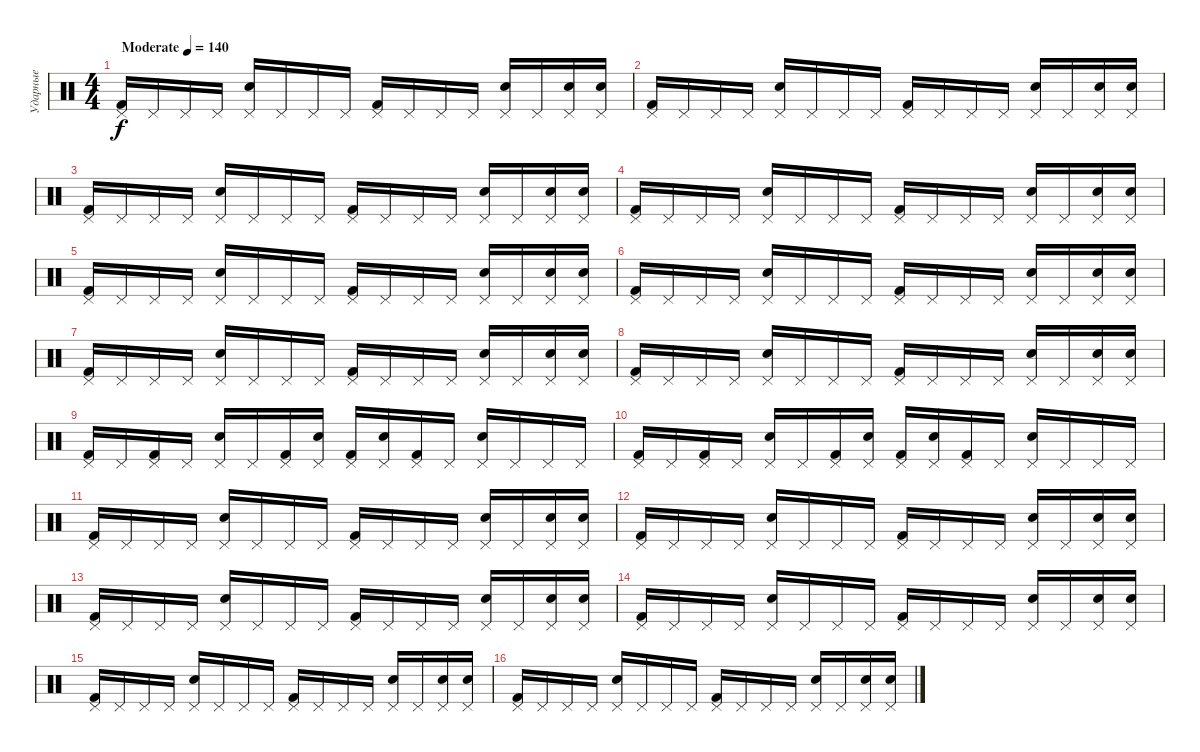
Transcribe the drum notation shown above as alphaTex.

\track ("Ударные" "Ударные") {instrument percussion}
\staff {score}
\articulation defaults
\ts (4 4)
\tempo (140 "Moderate")
\clef neutral
\ks c
("Pedal Hi-Hat (hit)" "Kick (hit) 2").16{dy f} "Pedal Hi-Hat (hit)".16 "Pedal Hi-Hat (hit)".16 "Pedal Hi-Hat (hit)".16 ("Pedal Hi-Hat (hit)" "Electric Snare (hit)").16 "Pedal Hi-Hat (hit)".16 "Pedal Hi-Hat (hit)".16 "Pedal Hi-Hat (hit)".16 ("Pedal Hi-Hat (hit)" "Kick (hit) 2").16 "Pedal Hi-Hat (hit)".16 "Pedal Hi-Hat (hit)".16 "Pedal Hi-Hat (hit)".16 ("Pedal Hi-Hat (hit)" "Electric Snare (hit)").16 "Pedal Hi-Hat (hit)".16 ("Pedal Hi-Hat (hit)" "Electric Snare (hit)").16 ("Pedal Hi-Hat (hit)" "Electric Snare (hit)").16 |
("Pedal Hi-Hat (hit)" "Kick (hit) 2").16 "Pedal Hi-Hat (hit)".16 "Pedal Hi-Hat (hit)".16 "Pedal Hi-Hat (hit)".16 ("Pedal Hi-Hat (hit)" "Electric Snare (hit)").16 "Pedal Hi-Hat (hit)".16 "Pedal Hi-Hat (hit)".16 "Pedal Hi-Hat (hit)".16 ("Pedal Hi-Hat (hit)" "Kick (hit) 2").16 "Pedal Hi-Hat (hit)".16 "Pedal Hi-Hat (hit)".16 "Pedal Hi-Hat (hit)".16 ("Pedal Hi-Hat (hit)" "Electric Snare (hit)").16 "Pedal Hi-Hat (hit)".16 ("Pedal Hi-Hat (hit)" "Electric Snare (hit)").16 ("Pedal Hi-Hat (hit)" "Electric Snare (hit)").16 |
("Pedal Hi-Hat (hit)" "Kick (hit) 2").16 "Pedal Hi-Hat (hit)".16 "Pedal Hi-Hat (hit)".16 "Pedal Hi-Hat (hit)".16 ("Pedal Hi-Hat (hit)" "Electric Snare (hit)").16 "Pedal Hi-Hat (hit)".16 "Pedal Hi-Hat (hit)".16 "Pedal Hi-Hat (hit)".16 ("Pedal Hi-Hat (hit)" "Kick (hit) 2").16 "Pedal Hi-Hat (hit)".16 "Pedal Hi-Hat (hit)".16 "Pedal Hi-Hat (hit)".16 ("Pedal Hi-Hat (hit)" "Electric Snare (hit)").16 "Pedal Hi-Hat (hit)".16 ("Pedal Hi-Hat (hit)" "Electric Snare (hit)").16 ("Pedal Hi-Hat (hit)" "Electric Snare (hit)").16 |
("Pedal Hi-Hat (hit)" "Kick (hit) 2").16 "Pedal Hi-Hat (hit)".16 "Pedal Hi-Hat (hit)".16 "Pedal Hi-Hat (hit)".16 ("Pedal Hi-Hat (hit)" "Electric Snare (hit)").16 "Pedal Hi-Hat (hit)".16 "Pedal Hi-Hat (hit)".16 "Pedal Hi-Hat (hit)".16 ("Pedal Hi-Hat (hit)" "Kick (hit) 2").16 "Pedal Hi-Hat (hit)".16 "Pedal Hi-Hat (hit)".16 "Pedal Hi-Hat (hit)".16 ("Pedal Hi-Hat (hit)" "Electric Snare (hit)").16 "Pedal Hi-Hat (hit)".16 ("Pedal Hi-Hat (hit)" "Electric Snare (hit)").16 ("Pedal Hi-Hat (hit)" "Electric Snare (hit)").16 |
("Pedal Hi-Hat (hit)" "Kick (hit) 2").16 "Pedal Hi-Hat (hit)".16 "Pedal Hi-Hat (hit)".16 "Pedal Hi-Hat (hit)".16 ("Pedal Hi-Hat (hit)" "Electric Snare (hit)").16 "Pedal Hi-Hat (hit)".16 "Pedal Hi-Hat (hit)".16 "Pedal Hi-Hat (hit)".16 ("Pedal Hi-Hat (hit)" "Kick (hit) 2").16 "Pedal Hi-Hat (hit)".16 "Pedal Hi-Hat (hit)".16 "Pedal Hi-Hat (hit)".16 ("Pedal Hi-Hat (hit)" "Electric Snare (hit)").16 "Pedal Hi-Hat (hit)".16 ("Pedal Hi-Hat (hit)" "Electric Snare (hit)").16 ("Pedal Hi-Hat (hit)" "Electric Snare (hit)").16 |
("Pedal Hi-Hat (hit)" "Kick (hit) 2").16 "Pedal Hi-Hat (hit)".16 "Pedal Hi-Hat (hit)".16 "Pedal Hi-Hat (hit)".16 ("Pedal Hi-Hat (hit)" "Electric Snare (hit)").16 "Pedal Hi-Hat (hit)".16 "Pedal Hi-Hat (hit)".16 "Pedal Hi-Hat (hit)".16 ("Pedal Hi-Hat (hit)" "Kick (hit) 2").16 "Pedal Hi-Hat (hit)".16 "Pedal Hi-Hat (hit)".16 "Pedal Hi-Hat (hit)".16 ("Pedal Hi-Hat (hit)" "Electric Snare (hit)").16 "Pedal Hi-Hat (hit)".16 ("Pedal Hi-Hat (hit)" "Electric Snare (hit)").16 ("Pedal Hi-Hat (hit)" "Electric Snare (hit)").16 |
("Pedal Hi-Hat (hit)" "Kick (hit) 2").16 "Pedal Hi-Hat (hit)".16 "Pedal Hi-Hat (hit)".16 "Pedal Hi-Hat (hit)".16 ("Pedal Hi-Hat (hit)" "Electric Snare (hit)").16 "Pedal Hi-Hat (hit)".16 "Pedal Hi-Hat (hit)".16 "Pedal Hi-Hat (hit)".16 ("Pedal Hi-Hat (hit)" "Kick (hit) 2").16 "Pedal Hi-Hat (hit)".16 "Pedal Hi-Hat (hit)".16 "Pedal Hi-Hat (hit)".16 ("Pedal Hi-Hat (hit)" "Electric Snare (hit)").16 "Pedal Hi-Hat (hit)".16 ("Pedal Hi-Hat (hit)" "Electric Snare (hit)").16 ("Pedal Hi-Hat (hit)" "Electric Snare (hit)").16 |
("Pedal Hi-Hat (hit)" "Kick (hit) 2").16 "Pedal Hi-Hat (hit)".16 "Pedal Hi-Hat (hit)".16 "Pedal Hi-Hat (hit)".16 ("Pedal Hi-Hat (hit)" "Electric Snare (hit)").16 "Pedal Hi-Hat (hit)".16 "Pedal Hi-Hat (hit)".16 "Pedal Hi-Hat (hit)".16 ("Pedal Hi-Hat (hit)" "Kick (hit) 2").16 "Pedal Hi-Hat (hit)".16 "Pedal Hi-Hat (hit)".16 "Pedal Hi-Hat (hit)".16 ("Pedal Hi-Hat (hit)" "Electric Snare (hit)").16 "Pedal Hi-Hat (hit)".16 ("Pedal Hi-Hat (hit)" "Electric Snare (hit)").16 ("Pedal Hi-Hat (hit)" "Electric Snare (hit)").16 |
("Pedal Hi-Hat (hit)" "Kick (hit) 2").16 "Pedal Hi-Hat (hit)".16 ("Pedal Hi-Hat (hit)" "Kick (hit) 2").16 "Pedal Hi-Hat (hit)".16 ("Pedal Hi-Hat (hit)" "Electric Snare (hit)").16 "Pedal Hi-Hat (hit)".16 ("Pedal Hi-Hat (hit)" "Kick (hit) 2").16 ("Pedal Hi-Hat (hit)" "Electric Snare (hit)").16 ("Pedal Hi-Hat (hit)" "Kick (hit) 2").16 ("Pedal Hi-Hat (hit)" "Electric Snare (hit)").16 ("Pedal Hi-Hat (hit)" "Kick (hit) 2").16 "Pedal Hi-Hat (hit)".16 ("Pedal Hi-Hat (hit)" "Electric Snare (hit)").16 "Pedal Hi-Hat (hit)".16 "Pedal Hi-Hat (hit)".16 "Pedal Hi-Hat (hit)".16 |
("Pedal Hi-Hat (hit)" "Kick (hit) 2").16 "Pedal Hi-Hat (hit)".16 ("Pedal Hi-Hat (hit)" "Kick (hit) 2").16 "Pedal Hi-Hat (hit)".16 ("Pedal Hi-Hat (hit)" "Electric Snare (hit)").16 "Pedal Hi-Hat (hit)".16 ("Pedal Hi-Hat (hit)" "Kick (hit) 2").16 ("Pedal Hi-Hat (hit)" "Electric Snare (hit)").16 ("Pedal Hi-Hat (hit)" "Kick (hit) 2").16 ("Pedal Hi-Hat (hit)" "Electric Snare (hit)").16 ("Pedal Hi-Hat (hit)" "Kick (hit) 2").16 "Pedal Hi-Hat (hit)".16 ("Pedal Hi-Hat (hit)" "Electric Snare (hit)").16 "Pedal Hi-Hat (hit)".16 "Pedal Hi-Hat (hit)".16 "Pedal Hi-Hat (hit)".16 |
("Pedal Hi-Hat (hit)" "Kick (hit) 2").16 "Pedal Hi-Hat (hit)".16 "Pedal Hi-Hat (hit)".16 "Pedal Hi-Hat (hit)".16 ("Pedal Hi-Hat (hit)" "Electric Snare (hit)").16 "Pedal Hi-Hat (hit)".16 "Pedal Hi-Hat (hit)".16 "Pedal Hi-Hat (hit)".16 ("Pedal Hi-Hat (hit)" "Kick (hit) 2").16 "Pedal Hi-Hat (hit)".16 "Pedal Hi-Hat (hit)".16 "Pedal Hi-Hat (hit)".16 ("Pedal Hi-Hat (hit)" "Electric Snare (hit)").16 "Pedal Hi-Hat (hit)".16 ("Pedal Hi-Hat (hit)" "Electric Snare (hit)").16 ("Pedal Hi-Hat (hit)" "Electric Snare (hit)").16 |
("Pedal Hi-Hat (hit)" "Kick (hit) 2").16 "Pedal Hi-Hat (hit)".16 "Pedal Hi-Hat (hit)".16 "Pedal Hi-Hat (hit)".16 ("Pedal Hi-Hat (hit)" "Electric Snare (hit)").16 "Pedal Hi-Hat (hit)".16 "Pedal Hi-Hat (hit)".16 "Pedal Hi-Hat (hit)".16 ("Pedal Hi-Hat (hit)" "Kick (hit) 2").16 "Pedal Hi-Hat (hit)".16 "Pedal Hi-Hat (hit)".16 "Pedal Hi-Hat (hit)".16 ("Pedal Hi-Hat (hit)" "Electric Snare (hit)").16 "Pedal Hi-Hat (hit)".16 ("Pedal Hi-Hat (hit)" "Electric Snare (hit)").16 ("Pedal Hi-Hat (hit)" "Electric Snare (hit)").16 |
("Pedal Hi-Hat (hit)" "Kick (hit) 2").16 "Pedal Hi-Hat (hit)".16 "Pedal Hi-Hat (hit)".16 "Pedal Hi-Hat (hit)".16 ("Pedal Hi-Hat (hit)" "Electric Snare (hit)").16 "Pedal Hi-Hat (hit)".16 "Pedal Hi-Hat (hit)".16 "Pedal Hi-Hat (hit)".16 ("Pedal Hi-Hat (hit)" "Kick (hit) 2").16 "Pedal Hi-Hat (hit)".16 "Pedal Hi-Hat (hit)".16 "Pedal Hi-Hat (hit)".16 ("Pedal Hi-Hat (hit)" "Electric Snare (hit)").16 "Pedal Hi-Hat (hit)".16 ("Pedal Hi-Hat (hit)" "Electric Snare (hit)").16 ("Pedal Hi-Hat (hit)" "Electric Snare (hit)").16 |
("Pedal Hi-Hat (hit)" "Kick (hit) 2").16 "Pedal Hi-Hat (hit)".16 "Pedal Hi-Hat (hit)".16 "Pedal Hi-Hat (hit)".16 ("Pedal Hi-Hat (hit)" "Electric Snare (hit)").16 "Pedal Hi-Hat (hit)".16 "Pedal Hi-Hat (hit)".16 "Pedal Hi-Hat (hit)".16 ("Pedal Hi-Hat (hit)" "Kick (hit) 2").16 "Pedal Hi-Hat (hit)".16 "Pedal Hi-Hat (hit)".16 "Pedal Hi-Hat (hit)".16 ("Pedal Hi-Hat (hit)" "Electric Snare (hit)").16 "Pedal Hi-Hat (hit)".16 ("Pedal Hi-Hat (hit)" "Electric Snare (hit)").16 ("Pedal Hi-Hat (hit)" "Electric Snare (hit)").16 |
("Pedal Hi-Hat (hit)" "Kick (hit) 2").16 "Pedal Hi-Hat (hit)".16 "Pedal Hi-Hat (hit)".16 "Pedal Hi-Hat (hit)".16 ("Pedal Hi-Hat (hit)" "Electric Snare (hit)").16 "Pedal Hi-Hat (hit)".16 "Pedal Hi-Hat (hit)".16 "Pedal Hi-Hat (hit)".16 ("Pedal Hi-Hat (hit)" "Kick (hit) 2").16 "Pedal Hi-Hat (hit)".16 "Pedal Hi-Hat (hit)".16 "Pedal Hi-Hat (hit)".16 ("Pedal Hi-Hat (hit)" "Electric Snare (hit)").16 "Pedal Hi-Hat (hit)".16 ("Pedal Hi-Hat (hit)" "Electric Snare (hit)").16 ("Pedal Hi-Hat (hit)" "Electric Snare (hit)").16 |
("Pedal Hi-Hat (hit)" "Kick (hit) 2").16 "Pedal Hi-Hat (hit)".16 "Pedal Hi-Hat (hit)".16 "Pedal Hi-Hat (hit)".16 ("Pedal Hi-Hat (hit)" "Electric Snare (hit)").16 "Pedal Hi-Hat (hit)".16 "Pedal Hi-Hat (hit)".16 "Pedal Hi-Hat (hit)".16 ("Pedal Hi-Hat (hit)" "Kick (hit) 2").16 "Pedal Hi-Hat (hit)".16 "Pedal Hi-Hat (hit)".16 "Pedal Hi-Hat (hit)".16 ("Pedal Hi-Hat (hit)" "Electric Snare (hit)").16 "Pedal Hi-Hat (hit)".16 ("Pedal Hi-Hat (hit)" "Electric Snare (hit)").16 ("Pedal Hi-Hat (hit)" "Electric Snare (hit)").16
